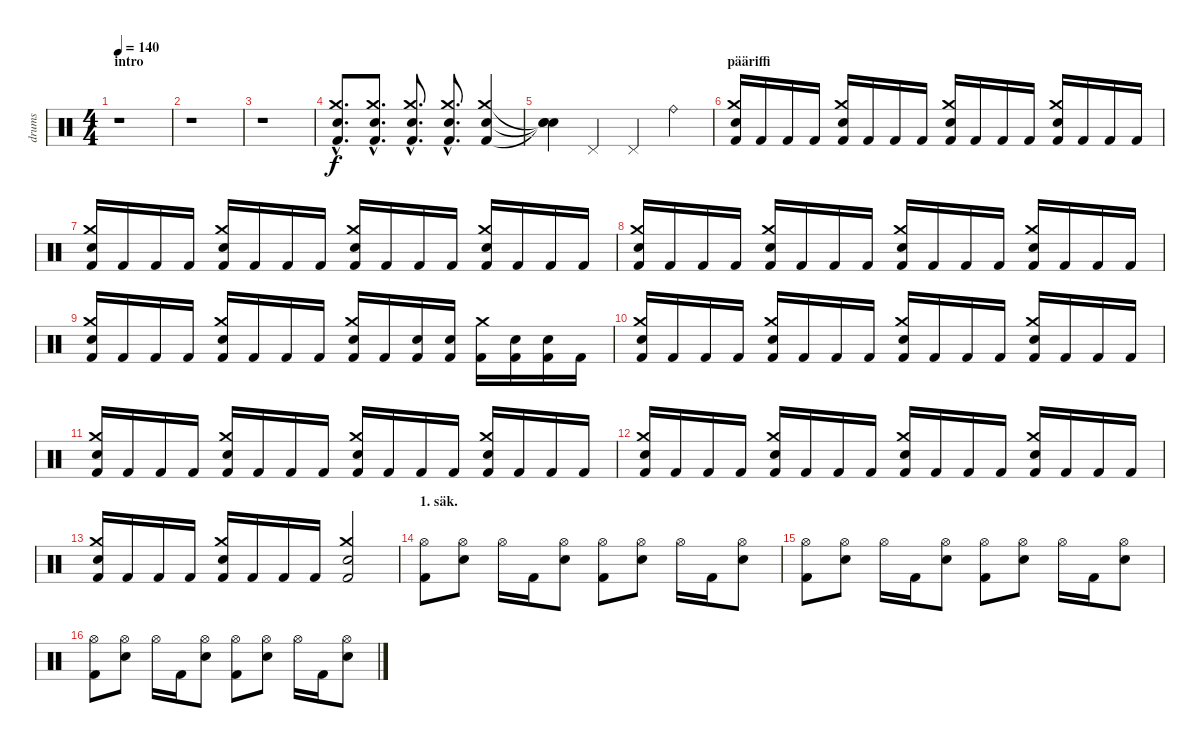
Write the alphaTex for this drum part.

\track ("drums" "drums") {instrument percussion}
\staff {score}
\articulation defaults
\ts (4 4)
\section ("" "intro")
\tempo 140
\clef neutral
\ks c
r.1{dy f} |
r.1 |
r.1 |
("Kick (hit) 2"{hac} "Crash medium (hit)"{hac} "Snare (hit) 2"{hac}).8{d} ("Kick (hit) 2"{hac} "Crash medium (hit)"{hac} "Snare (hit) 2"{hac}).8{d} ("Kick (hit) 2"{hac} "Crash medium (hit)"{hac} "Snare (hit) 2"{hac}).8{d} ("Kick (hit) 2"{hac} "Crash medium (hit)"{hac} "Snare (hit) 2"{hac}).8{d} ("Kick (hit) 2" "Crash medium (hit)" "Snare (hit) 2").4 |
("Snare (hit)"{t} "Snare (hit)"{t} "Snare (hit)"{t}).4 "Pedal Hi-Hat (hit)".4 "Pedal Hi-Hat (hit)".4 "Ride (bell)".4 |
\section ("" "pääriffi")
("Kick (hit) 2" "Crash medium (hit)" "Snare (hit) 2").16 "Kick (hit) 2".16 "Kick (hit) 2".16 "Kick (hit) 2".16 ("Kick (hit) 2" "Crash medium (hit)" "Snare (hit) 2").16 "Kick (hit) 2".16 "Kick (hit) 2".16 "Kick (hit) 2".16 ("Kick (hit) 2" "Crash medium (hit)" "Snare (hit) 2").16 "Kick (hit) 2".16 "Kick (hit) 2".16 "Kick (hit) 2".16 ("Kick (hit) 2" "Crash medium (hit)" "Snare (hit) 2").16 "Kick (hit) 2".16 "Kick (hit) 2".16 "Kick (hit) 2".16 |
("Kick (hit) 2" "Crash medium (hit)" "Snare (hit) 2").16 "Kick (hit) 2".16 "Kick (hit) 2".16 "Kick (hit) 2".16 ("Kick (hit) 2" "Crash medium (hit)" "Snare (hit) 2").16 "Kick (hit) 2".16 "Kick (hit) 2".16 "Kick (hit) 2".16 ("Kick (hit) 2" "Crash medium (hit)" "Snare (hit) 2").16 "Kick (hit) 2".16 "Kick (hit) 2".16 "Kick (hit) 2".16 ("Kick (hit) 2" "Crash medium (hit)" "Snare (hit) 2").16 "Kick (hit) 2".16 "Kick (hit) 2".16 "Kick (hit) 2".16 |
("Kick (hit) 2" "Crash medium (hit)" "Snare (hit) 2").16 "Kick (hit) 2".16 "Kick (hit) 2".16 "Kick (hit) 2".16 ("Kick (hit) 2" "Crash medium (hit)" "Snare (hit) 2").16 "Kick (hit) 2".16 "Kick (hit) 2".16 "Kick (hit) 2".16 ("Kick (hit) 2" "Crash medium (hit)" "Snare (hit) 2").16 "Kick (hit) 2".16 "Kick (hit) 2".16 "Kick (hit) 2".16 ("Kick (hit) 2" "Crash medium (hit)" "Snare (hit) 2").16 "Kick (hit) 2".16 "Kick (hit) 2".16 "Kick (hit) 2".16 |
("Kick (hit) 2" "Crash medium (hit)" "Snare (hit) 2").16 "Kick (hit) 2".16 "Kick (hit) 2".16 "Kick (hit) 2".16 ("Kick (hit) 2" "Crash medium (hit)" "Snare (hit) 2").16 "Kick (hit) 2".16 "Kick (hit) 2".16 "Kick (hit) 2".16 ("Kick (hit) 2" "Crash medium (hit)" "Snare (hit) 2").16 "Kick (hit) 2".16 ("Kick (hit) 2" "Snare (hit) 2").16 ("Kick (hit) 2" "Snare (hit) 2").16 ("Kick (hit) 2" "Crash medium (hit)").16 ("Kick (hit) 2" "Snare (hit) 2").16 ("Kick (hit) 2" "Snare (hit) 2").16 "Kick (hit) 2".16 |
("Kick (hit) 2" "Crash medium (hit)" "Snare (hit) 2").16 "Kick (hit) 2".16 "Kick (hit) 2".16 "Kick (hit) 2".16 ("Kick (hit) 2" "Crash medium (hit)" "Snare (hit) 2").16 "Kick (hit) 2".16 "Kick (hit) 2".16 "Kick (hit) 2".16 ("Kick (hit) 2" "Crash medium (hit)" "Snare (hit) 2").16 "Kick (hit) 2".16 "Kick (hit) 2".16 "Kick (hit) 2".16 ("Kick (hit) 2" "Crash medium (hit)" "Snare (hit) 2").16 "Kick (hit) 2".16 "Kick (hit) 2".16 "Kick (hit) 2".16 |
("Kick (hit) 2" "Crash medium (hit)" "Snare (hit) 2").16 "Kick (hit) 2".16 "Kick (hit) 2".16 "Kick (hit) 2".16 ("Kick (hit) 2" "Crash medium (hit)" "Snare (hit) 2").16 "Kick (hit) 2".16 "Kick (hit) 2".16 "Kick (hit) 2".16 ("Kick (hit) 2" "Crash medium (hit)" "Snare (hit) 2").16 "Kick (hit) 2".16 "Kick (hit) 2".16 "Kick (hit) 2".16 ("Kick (hit) 2" "Crash medium (hit)" "Snare (hit) 2").16 "Kick (hit) 2".16 "Kick (hit) 2".16 "Kick (hit) 2".16 |
("Kick (hit) 2" "Crash medium (hit)" "Snare (hit) 2").16 "Kick (hit) 2".16 "Kick (hit) 2".16 "Kick (hit) 2".16 ("Kick (hit) 2" "Crash medium (hit)" "Snare (hit) 2").16 "Kick (hit) 2".16 "Kick (hit) 2".16 "Kick (hit) 2".16 ("Kick (hit) 2" "Crash medium (hit)" "Snare (hit) 2").16 "Kick (hit) 2".16 "Kick (hit) 2".16 "Kick (hit) 2".16 ("Kick (hit) 2" "Crash medium (hit)" "Snare (hit) 2").16 "Kick (hit) 2".16 "Kick (hit) 2".16 "Kick (hit) 2".16 |
("Kick (hit) 2" "Crash medium (hit)" "Snare (hit) 2").16 "Kick (hit) 2".16 "Kick (hit) 2".16 "Kick (hit) 2".16 ("Kick (hit) 2" "Crash medium (hit)" "Snare (hit) 2").16 "Kick (hit) 2".16 "Kick (hit) 2".16 "Kick (hit) 2".16 ("Kick (hit) 2" "Crash medium (hit)" "Snare (hit) 2").2 |
\section ("" "1. säk.")
("Kick (hit) 2" "Hi-Hat (open)").8 ("Hi-Hat (open)" "Snare (hit) 2").8 "Hi-Hat (open)".16 "Kick (hit) 2".16 ("Hi-Hat (open)" "Snare (hit) 2").8 ("Kick (hit) 2" "Hi-Hat (open)").8 ("Hi-Hat (open)" "Snare (hit) 2").8 "Hi-Hat (open)".16 "Kick (hit) 2".16 ("Hi-Hat (open)" "Snare (hit) 2").8 |
("Kick (hit) 2" "Hi-Hat (open)").8 ("Hi-Hat (open)" "Snare (hit) 2").8 "Hi-Hat (open)".16 "Kick (hit) 2".16 ("Hi-Hat (open)" "Snare (hit) 2").8 ("Kick (hit) 2" "Hi-Hat (open)").8 ("Hi-Hat (open)" "Snare (hit) 2").8 "Hi-Hat (open)".16 "Kick (hit) 2".16 ("Hi-Hat (open)" "Snare (hit) 2").8 |
("Kick (hit) 2" "Hi-Hat (open)").8 ("Hi-Hat (open)" "Snare (hit) 2").8 "Hi-Hat (open)".16 "Kick (hit) 2".16 ("Hi-Hat (open)" "Snare (hit) 2").8 ("Kick (hit) 2" "Hi-Hat (open)").8 ("Hi-Hat (open)" "Snare (hit) 2").8 "Hi-Hat (open)".16 "Kick (hit) 2".16 ("Hi-Hat (open)" "Snare (hit) 2").8
